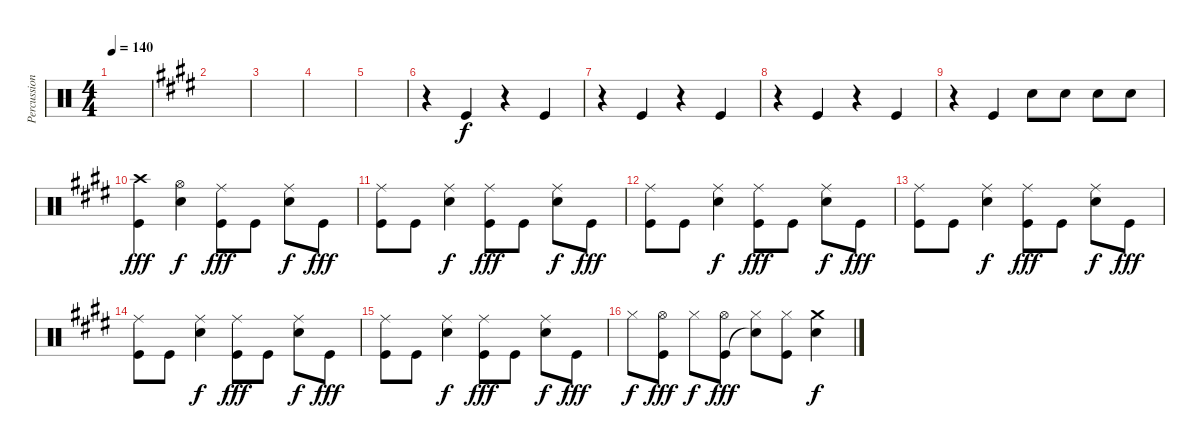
\track ("Percussion" "Percussion") {instrument percussion}
\staff {score}
\articulation defaults
\ts (4 4)
\tempo 140
\clef neutral
\ks c
|
\ks e
|
|
|
|
r.4 "Kick (hit)".4 r.4 "Kick (hit)".4 |
r.4 "Kick (hit)".4 r.4 "Kick (hit)".4 |
r.4 "Kick (hit)".4 r.4 "Kick (hit)".4 |
r.4 "Kick (hit)".4 "Snare (hit) 2".8{dy f} "Snare (hit) 2".8 "Snare (hit) 2".8 "Snare (hit) 2".8 |
("Crash high (hit)" "Kick (hit)").4{dy fff} ("Hi-Hat (open)" "Snare (hit) 2").4{dy f} ("Ride (middle)" "Kick (hit)").8{dy fff} "Kick (hit)".8 ("Ride (middle)" "Snare (hit) 2").8{dy f} "Kick (hit)".8{dy fff} |
("Ride (middle)" "Kick (hit)").8 "Kick (hit)".8 ("Ride (middle)" "Snare (hit) 2").4{dy f} ("Ride (middle)" "Kick (hit)").8{dy fff} "Kick (hit)".8 ("Ride (middle)" "Snare (hit) 2").8{dy f} "Kick (hit)".8{dy fff} |
("Ride (middle)" "Kick (hit)").8 "Kick (hit)".8 ("Ride (middle)" "Snare (hit) 2").4{dy f} ("Ride (middle)" "Kick (hit)").8{dy fff} "Kick (hit)".8 ("Ride (middle)" "Snare (hit) 2").8{dy f} "Kick (hit)".8{dy fff} |
("Ride (middle)" "Kick (hit)").8 "Kick (hit)".8 ("Ride (middle)" "Snare (hit) 2").4{dy f} ("Ride (middle)" "Kick (hit)").8{dy fff} "Kick (hit)".8 ("Ride (middle)" "Snare (hit) 2").8{dy f} "Kick (hit)".8{dy fff} |
("Ride (middle)" "Kick (hit)").8 "Kick (hit)".8 ("Ride (middle)" "Snare (hit) 2").4{dy f} ("Ride (middle)" "Kick (hit)").8{dy fff} "Kick (hit)".8 ("Ride (middle)" "Snare (hit) 2").8{dy f} "Kick (hit)".8{dy fff} |
("Ride (middle)" "Kick (hit)").8 "Kick (hit)".8 ("Ride (middle)" "Snare (hit) 2").4{dy f} ("Ride (middle)" "Kick (hit)").8{dy fff} "Kick (hit)".8 ("Ride (middle)" "Snare (hit) 2").8{dy f} "Kick (hit)".8{dy fff} |
"Hi-Hat (closed)".8{dy f} ("Hi-Hat (open)" "Kick (hit)").8{dy fff} "Hi-Hat (closed)".8{dy f} ("Hi-Hat (open)" "Kick (hit)").8{dy fff} ("Hi-Hat (closed)" "Snare (hit)"{t}).8 ("Hi-Hat (closed)" "Kick (hit)").8 ("Crash medium (hit)" "Snare (hit) 2").4{dy f}
